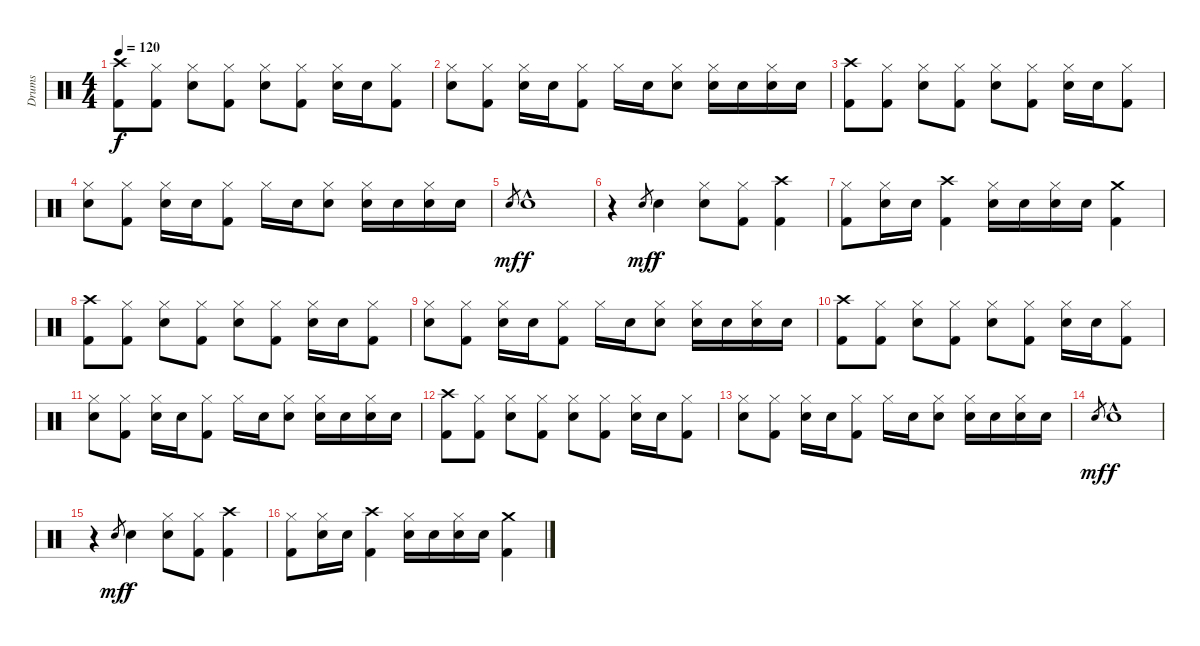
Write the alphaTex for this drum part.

\track ("Drums" "Drums") {instrument percussion}
\staff {score}
\articulation defaults
\ts (4 4)
\tempo 120
\clef neutral
\ks c
("Crash high (hit)" "Kick (hit) 2").8{dy f} ("Hi-Hat (closed)" "Kick (hit) 2").8 ("Hi-Hat (closed)" "Electric Snare (hit)").8 ("Hi-Hat (closed)" "Kick (hit) 2").8 ("Hi-Hat (closed)" "Electric Snare (hit)").8 ("Hi-Hat (closed)" "Kick (hit) 2").8 ("Hi-Hat (closed)" "Electric Snare (hit)").16 "Electric Snare (hit)".16 ("Hi-Hat (closed)" "Kick (hit) 2").8 |
("Hi-Hat (closed)" "Electric Snare (hit)").8 ("Hi-Hat (closed)" "Kick (hit) 2").8 ("Hi-Hat (closed)" "Electric Snare (hit)").16 "Electric Snare (hit)".16 ("Hi-Hat (closed)" "Kick (hit) 2").8 "Hi-Hat (closed)".16 "Electric Snare (hit)".16 ("Hi-Hat (closed)" "Electric Snare (hit)").8 ("Hi-Hat (closed)" "Electric Snare (hit)").16 "Electric Snare (hit)".16 ("Hi-Hat (closed)" "Electric Snare (hit)").16 "Electric Snare (hit)".16 |
("Crash high (hit)" "Kick (hit) 2").8 ("Hi-Hat (closed)" "Kick (hit) 2").8 ("Hi-Hat (closed)" "Electric Snare (hit)").8 ("Hi-Hat (closed)" "Kick (hit) 2").8 ("Hi-Hat (closed)" "Electric Snare (hit)").8 ("Hi-Hat (closed)" "Kick (hit) 2").8 ("Hi-Hat (closed)" "Electric Snare (hit)").16 "Electric Snare (hit)".16 ("Hi-Hat (closed)" "Kick (hit) 2").8 |
("Hi-Hat (closed)" "Electric Snare (hit)").8 ("Hi-Hat (closed)" "Kick (hit) 2").8 ("Hi-Hat (closed)" "Electric Snare (hit)").16 "Electric Snare (hit)".16 ("Hi-Hat (closed)" "Kick (hit) 2").8 "Hi-Hat (closed)".16 "Electric Snare (hit)".16 ("Hi-Hat (closed)" "Electric Snare (hit)").8 ("Hi-Hat (closed)" "Electric Snare (hit)").16 "Electric Snare (hit)".16 ("Hi-Hat (closed)" "Electric Snare (hit)").16 "Electric Snare (hit)".16 |
"Electric Snare (hit)".8{gr dy mf} "Electric Snare (hit)"{hac}.1{dy f} |
r.4 "Electric Snare (hit)".8{gr dy mf} "Electric Snare (hit)".4{dy f} ("Hi-Hat (closed)" "Electric Snare (hit)").8 ("Hi-Hat (closed)" "Kick (hit) 2").8 ("Crash high (hit)" "Kick (hit) 2").4 |
("Hi-Hat (closed)" "Kick (hit) 2").8 ("Hi-Hat (closed)" "Electric Snare (hit)").16 "Electric Snare (hit)".16 ("Crash high (hit)" "Kick (hit) 2").4 ("Hi-Hat (closed)" "Electric Snare (hit)").16 "Electric Snare (hit)".16 ("Hi-Hat (closed)" "Electric Snare (hit)").16 "Electric Snare (hit)".16 ("Crash medium (hit)" "Kick (hit) 2").4 |
("Crash high (hit)" "Kick (hit) 2").8 ("Hi-Hat (closed)" "Kick (hit) 2").8 ("Hi-Hat (closed)" "Electric Snare (hit)").8 ("Hi-Hat (closed)" "Kick (hit) 2").8 ("Hi-Hat (closed)" "Electric Snare (hit)").8 ("Hi-Hat (closed)" "Kick (hit) 2").8 ("Hi-Hat (closed)" "Electric Snare (hit)").16 "Electric Snare (hit)".16 ("Hi-Hat (closed)" "Kick (hit) 2").8 |
("Hi-Hat (closed)" "Electric Snare (hit)").8 ("Hi-Hat (closed)" "Kick (hit) 2").8 ("Hi-Hat (closed)" "Electric Snare (hit)").16 "Electric Snare (hit)".16 ("Hi-Hat (closed)" "Kick (hit) 2").8 "Hi-Hat (closed)".16 "Electric Snare (hit)".16 ("Hi-Hat (closed)" "Electric Snare (hit)").8 ("Hi-Hat (closed)" "Electric Snare (hit)").16 "Electric Snare (hit)".16 ("Hi-Hat (closed)" "Electric Snare (hit)").16 "Electric Snare (hit)".16 |
("Crash high (hit)" "Kick (hit) 2").8 ("Hi-Hat (closed)" "Kick (hit) 2").8 ("Hi-Hat (closed)" "Electric Snare (hit)").8 ("Hi-Hat (closed)" "Kick (hit) 2").8 ("Hi-Hat (closed)" "Electric Snare (hit)").8 ("Hi-Hat (closed)" "Kick (hit) 2").8 ("Hi-Hat (closed)" "Electric Snare (hit)").16 "Electric Snare (hit)".16 ("Hi-Hat (closed)" "Kick (hit) 2").8 |
("Hi-Hat (closed)" "Electric Snare (hit)").8 ("Hi-Hat (closed)" "Kick (hit) 2").8 ("Hi-Hat (closed)" "Electric Snare (hit)").16 "Electric Snare (hit)".16 ("Hi-Hat (closed)" "Kick (hit) 2").8 "Hi-Hat (closed)".16 "Electric Snare (hit)".16 ("Hi-Hat (closed)" "Electric Snare (hit)").8 ("Hi-Hat (closed)" "Electric Snare (hit)").16 "Electric Snare (hit)".16 ("Hi-Hat (closed)" "Electric Snare (hit)").16 "Electric Snare (hit)".16 |
("Crash high (hit)" "Kick (hit) 2").8 ("Hi-Hat (closed)" "Kick (hit) 2").8 ("Hi-Hat (closed)" "Electric Snare (hit)").8 ("Hi-Hat (closed)" "Kick (hit) 2").8 ("Hi-Hat (closed)" "Electric Snare (hit)").8 ("Hi-Hat (closed)" "Kick (hit) 2").8 ("Hi-Hat (closed)" "Electric Snare (hit)").16 "Electric Snare (hit)".16 ("Hi-Hat (closed)" "Kick (hit) 2").8 |
("Hi-Hat (closed)" "Electric Snare (hit)").8 ("Hi-Hat (closed)" "Kick (hit) 2").8 ("Hi-Hat (closed)" "Electric Snare (hit)").16 "Electric Snare (hit)".16 ("Hi-Hat (closed)" "Kick (hit) 2").8 "Hi-Hat (closed)".16 "Electric Snare (hit)".16 ("Hi-Hat (closed)" "Electric Snare (hit)").8 ("Hi-Hat (closed)" "Electric Snare (hit)").16 "Electric Snare (hit)".16 ("Hi-Hat (closed)" "Electric Snare (hit)").16 "Electric Snare (hit)".16 |
"Electric Snare (hit)".8{gr dy mf} "Electric Snare (hit)"{hac}.1{dy f} |
r.4 "Electric Snare (hit)".8{gr dy mf} "Electric Snare (hit)".4{dy f} ("Hi-Hat (closed)" "Electric Snare (hit)").8 ("Hi-Hat (closed)" "Kick (hit) 2").8 ("Crash high (hit)" "Kick (hit) 2").4 |
("Hi-Hat (closed)" "Kick (hit) 2").8 ("Hi-Hat (closed)" "Electric Snare (hit)").16 "Electric Snare (hit)".16 ("Crash high (hit)" "Kick (hit) 2").4 ("Hi-Hat (closed)" "Electric Snare (hit)").16 "Electric Snare (hit)".16 ("Hi-Hat (closed)" "Electric Snare (hit)").16 "Electric Snare (hit)".16 ("Crash medium (hit)" "Kick (hit) 2").4
